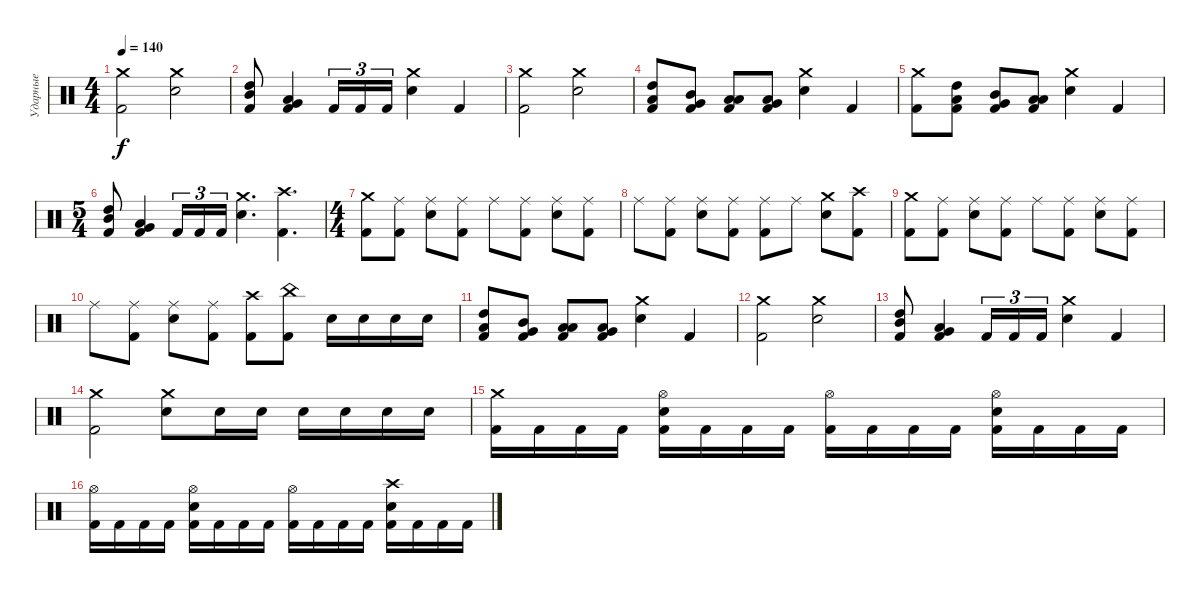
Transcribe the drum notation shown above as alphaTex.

\track ("Ударные" "Ударные") {instrument percussion}
\staff {score}
\articulation defaults
\ts (4 4)
\tempo 140
\clef neutral
\ks c
("Crash medium (hit)" "Kick (hit) 2").2{dy f} ("Crash medium (hit)" "Electric Snare (hit)").2 |
("High Tom (hit)" "Mid Tom (hit)" "Kick (hit) 2").8 ("Low Tom (hit)" "Very Low Tom (hit)" "Kick (hit) 2").4 "Kick (hit) 2".16{tu (3 2)} "Kick (hit) 2".16{tu (3 2)} "Kick (hit) 2".16{tu (3 2)} ("Crash medium (hit)" "Electric Snare (hit)").4 "Kick (hit) 2".4 |
("Crash medium (hit)" "Kick (hit) 2").2 ("Crash medium (hit)" "Electric Snare (hit)").2 |
("High Tom (hit)" "Low Tom (hit)" "Kick (hit) 2").8 ("Mid Tom (hit)" "Very Low Tom (hit)" "Kick (hit) 2").8 ("Low Tom (hit)" "Low Floor Tom (hit)" "Kick (hit) 2").8 ("Very Low Tom (hit)" "Low Floor Tom (hit)" "Kick (hit) 2").8 ("Crash medium (hit)" "Electric Snare (hit)").4 "Kick (hit) 2".4 |
("Crash medium (hit)" "Kick (hit) 2").8 ("High Tom (hit)" "Low Tom (hit)" "Kick (hit) 2").8 ("Mid Tom (hit)" "Very Low Tom (hit)" "Kick (hit) 2").8 ("Low Tom (hit)" "Low Floor Tom (hit)" "Kick (hit) 2").8 ("Crash medium (hit)" "Electric Snare (hit)").4 "Kick (hit) 2".4 |
\ts (5 4)
("High Tom (hit)" "Mid Tom (hit)" "Kick (hit) 2").8 ("Low Tom (hit)" "Very Low Tom (hit)" "Kick (hit) 2").4 "Kick (hit) 2".16{tu (3 2)} "Kick (hit) 2".16{tu (3 2)} "Kick (hit) 2".16{tu (3 2)} ("Crash medium (hit)" "Electric Snare (hit)").4{d} ("Crash high (hit)" "Kick (hit) 2").4{d} |
\ts (4 4)
("Crash medium (hit)" "Kick (hit) 2").8 ("Ride (middle)" "Kick (hit) 2").8 ("Ride (middle)" "Electric Snare (hit)").8 ("Ride (middle)" "Kick (hit) 2").8 "Ride (middle)".8 ("Ride (middle)" "Kick (hit) 2").8 ("Ride (middle)" "Electric Snare (hit)").8 ("Ride (middle)" "Kick (hit) 2").8 |
"Ride (middle)".8 ("Ride (middle)" "Kick (hit) 2").8 ("Ride (middle)" "Electric Snare (hit)").8 ("Ride (middle)" "Kick (hit) 2").8 ("Ride (middle)" "Kick (hit) 2").8 "Ride (middle)".8 ("Crash medium (hit)" "Electric Snare (hit)").8 ("Crash high (hit)" "Kick (hit) 2").8 |
("Crash medium (hit)" "Kick (hit) 2").8 ("Ride (middle)" "Kick (hit) 2").8 ("Ride (middle)" "Electric Snare (hit)").8 ("Ride (middle)" "Kick (hit) 2").8 "Ride (middle)".8 ("Ride (middle)" "Kick (hit) 2").8 ("Ride (middle)" "Electric Snare (hit)").8 ("Ride (middle)" "Kick (hit) 2").8 |
"Ride (middle)".8 ("Ride (middle)" "Kick (hit) 2").8 ("Ride (middle)" "Electric Snare (hit)").8 ("Ride (middle)" "Kick (hit) 2").8 ("Crash high (hit)" "Kick (hit) 2").8 ("China (hit)" "Kick (hit) 2").8 "Electric Snare (hit)".16 "Electric Snare (hit)".16 "Electric Snare (hit)".16 "Electric Snare (hit)".16 |
("High Tom (hit)" "Low Tom (hit)" "Kick (hit) 2").8 ("Mid Tom (hit)" "Very Low Tom (hit)" "Kick (hit) 2").8 ("Low Tom (hit)" "Low Floor Tom (hit)" "Kick (hit) 2").8 ("Very Low Tom (hit)" "Low Floor Tom (hit)" "Kick (hit) 2").8 ("Crash medium (hit)" "Electric Snare (hit)").4 "Kick (hit) 2".4 |
("Crash medium (hit)" "Kick (hit) 2").2 ("Crash medium (hit)" "Electric Snare (hit)").2 |
("High Tom (hit)" "Mid Tom (hit)" "Kick (hit) 2").8 ("Low Tom (hit)" "Very Low Tom (hit)" "Kick (hit) 2").4 "Kick (hit) 2".16{tu (3 2)} "Kick (hit) 2".16{tu (3 2)} "Kick (hit) 2".16{tu (3 2)} ("Crash medium (hit)" "Electric Snare (hit)").4 "Kick (hit) 2".4 |
("Crash medium (hit)" "Kick (hit) 2").2 ("Crash medium (hit)" "Electric Snare (hit)").8 "Electric Snare (hit)".16 "Electric Snare (hit)".16 "Electric Snare (hit)".16 "Electric Snare (hit)".16 "Electric Snare (hit)".16 "Electric Snare (hit)".16 |
("Crash medium (hit)" "Kick (hit) 2").16 "Kick (hit) 2".16 "Kick (hit) 2".16 "Kick (hit) 2".16 ("Hi-Hat (open)" "Electric Snare (hit)" "Kick (hit) 2").16 "Kick (hit) 2".16 "Kick (hit) 2".16 "Kick (hit) 2".16 ("Hi-Hat (open)" "Kick (hit) 2").16 "Kick (hit) 2".16 "Kick (hit) 2".16 "Kick (hit) 2".16 ("Hi-Hat (open)" "Electric Snare (hit)" "Kick (hit) 2").16 "Kick (hit) 2".16 "Kick (hit) 2".16 "Kick (hit) 2".16 |
("Hi-Hat (open)" "Kick (hit) 2").16 "Kick (hit) 2".16 "Kick (hit) 2".16 "Kick (hit) 2".16 ("Hi-Hat (open)" "Electric Snare (hit)" "Kick (hit) 2").16 "Kick (hit) 2".16 "Kick (hit) 2".16 "Kick (hit) 2".16 ("Hi-Hat (open)" "Kick (hit) 2").16 "Kick (hit) 2".16 "Kick (hit) 2".16 "Kick (hit) 2".16 ("Crash high (hit)" "Electric Snare (hit)" "Kick (hit) 2").16 "Kick (hit) 2".16 "Kick (hit) 2".16 "Kick (hit) 2".16
